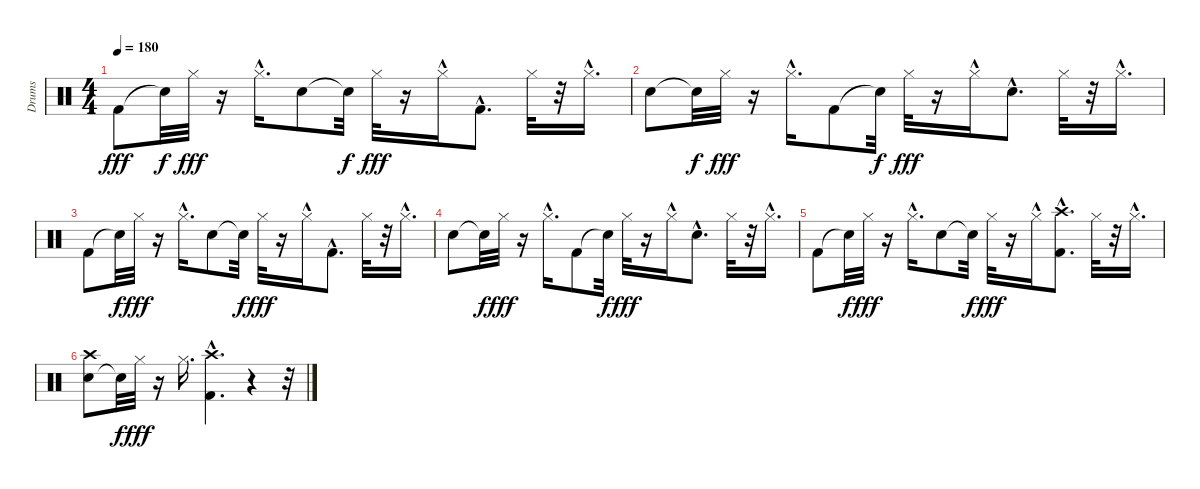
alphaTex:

\track ("Drums" "Drums") {instrument percussion}
\staff {score}
\articulation defaults
\ts (4 4)
\tempo 180
\clef neutral
\ks c "Kick (hit) 2".8{dy fff} "Snare (hit)"{t}.32{dy f} "Hi-Hat (closed)".32{dy fff}
r.16 "Hi-Hat (closed)"{hac}.16{d} "Snare (hit) 2".8 "Snare (hit)"{t}.32{dy f} "Hi-Hat (closed)".32{dy fff} r.16 "Hi-Hat (closed)"{hac}.16 "Kick (hit) 2"{hac}.8{d} "Hi-Hat (closed)".32 r.32 "Hi-Hat (closed)"{hac}.16{d} |
"Snare (hit) 2".8 "Snare (hit)"{t}.32{dy f} "Hi-Hat (closed)".32{dy fff} r.16 "Hi-Hat (closed)"{hac}.16{d} "Kick (hit) 2".8 "Snare (hit)"{t}.32{dy f} "Hi-Hat (closed)".32{dy fff} r.16 "Hi-Hat (closed)"{hac}.16 "Snare (hit) 2"{hac}.8{d} "Hi-Hat (closed)".32 r.32 "Hi-Hat (closed)"{hac}.16{d} |
"Kick (hit) 2".8 "Snare (hit)"{t}.32{dy f} "Hi-Hat (closed)".32{dy fff} r.16 "Hi-Hat (closed)"{hac}.16{d} "Snare (hit) 2".8 "Snare (hit)"{t}.32{dy f} "Hi-Hat (closed)".32{dy fff} r.16 "Hi-Hat (closed)"{hac}.16 "Kick (hit) 2"{hac}.8{d} "Hi-Hat (closed)".32 r.32 "Hi-Hat (closed)"{hac}.16{d} |
"Snare (hit) 2".8 "Snare (hit)"{t}.32{dy f} "Hi-Hat (closed)".32{dy fff} r.16 "Hi-Hat (closed)"{hac}.16{d} "Kick (hit) 2".8 "Snare (hit)"{t}.32{dy f} "Hi-Hat (closed)".32{dy fff} r.16 "Hi-Hat (closed)"{hac}.16 "Snare (hit) 2"{hac}.8{d} "Hi-Hat (closed)".32 r.32 "Hi-Hat (closed)"{hac}.16{d} |
"Kick (hit) 2".8 "Snare (hit)"{t}.32{dy f} "Hi-Hat (closed)".32{dy fff} r.16 "Hi-Hat (closed)"{hac}.16{d} "Snare (hit) 2".8 "Snare (hit)"{t}.32{dy f} "Hi-Hat (closed)".32{dy fff} r.16 "Hi-Hat (closed)"{hac}.16 ("Kick (hit) 2"{hac} "Crash high (hit)").8{d} "Hi-Hat (closed)".32 r.32 "Hi-Hat (closed)"{hac}.16{d} |
("Snare (hit) 2" "Crash high (hit)").8 "Snare (hit)"{t}.32{dy f} "Hi-Hat (closed)".32{dy fff} r.16 "Hi-Hat (closed)".16{d} ("Kick (hit) 2"{hac} "Crash high (hit)").4{d} r.4 r.32
